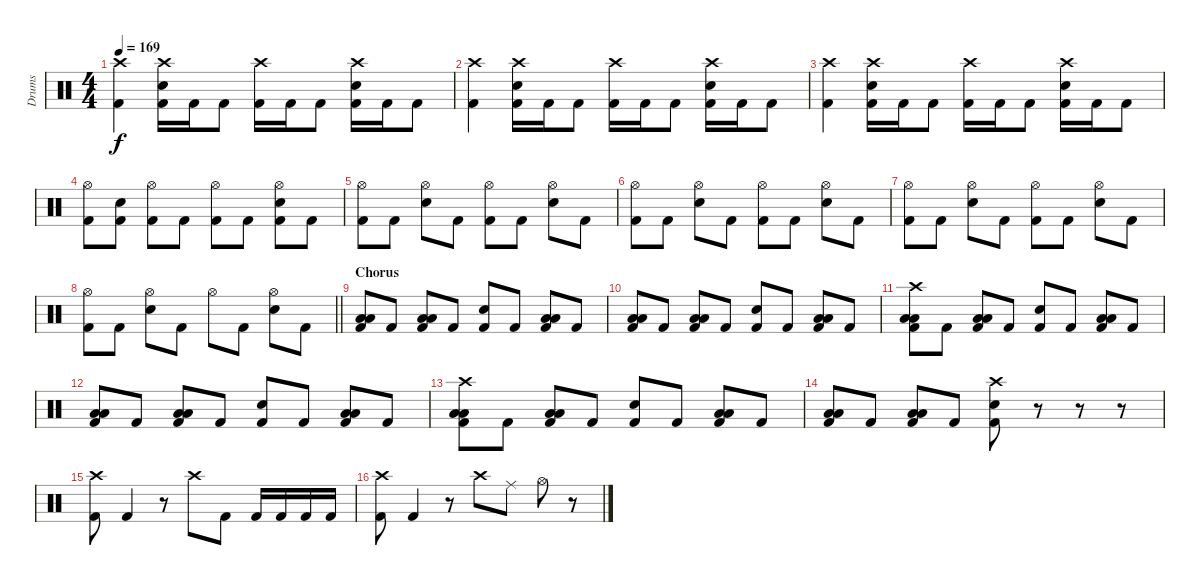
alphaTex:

\track ("Drums" "Drums") {instrument percussion}
\staff {score}
\articulation defaults
\ts (4 4)
\tempo 169
\clef neutral
\ks c
("Crash high (hit)" "Kick (hit) 2").4{dy f} ("Crash high (hit)" "Electric Snare (hit)" "Kick (hit) 2").16 "Kick (hit) 2".16 "Kick (hit) 2".8 ("Crash high (hit)" "Kick (hit) 2").16 "Kick (hit) 2".16 "Kick (hit) 2".8 ("Crash high (hit)" "Electric Snare (hit)" "Kick (hit) 2").16 "Kick (hit) 2".16 "Kick (hit) 2".8 |
("Crash high (hit)" "Kick (hit) 2").4 ("Crash high (hit)" "Electric Snare (hit)" "Kick (hit) 2").16 "Kick (hit) 2".16 "Kick (hit) 2".8 ("Crash high (hit)" "Kick (hit) 2").16 "Kick (hit) 2".16 "Kick (hit) 2".8 ("Crash high (hit)" "Electric Snare (hit)" "Kick (hit) 2").16 "Kick (hit) 2".16 "Kick (hit) 2".8 |
("Crash high (hit)" "Kick (hit) 2").4 ("Crash high (hit)" "Electric Snare (hit)" "Kick (hit) 2").16 "Kick (hit) 2".16 "Kick (hit) 2".8 ("Crash high (hit)" "Kick (hit) 2").16 "Kick (hit) 2".16 "Kick (hit) 2".8 ("Crash high (hit)" "Electric Snare (hit)" "Kick (hit) 2").16 "Kick (hit) 2".16 "Kick (hit) 2".8 |
("Hi-Hat (open)" "Kick (hit) 2").8 ("Electric Snare (hit)" "Kick (hit) 2").8 ("Hi-Hat (open)" "Kick (hit) 2").8 "Kick (hit) 2".8 ("Hi-Hat (open)" "Kick (hit) 2").8 "Kick (hit) 2".8 ("Hi-Hat (open)" "Electric Snare (hit)" "Kick (hit) 2").8 "Kick (hit) 2".8 |
("Hi-Hat (open)" "Kick (hit) 2").8 "Kick (hit) 2".8 ("Hi-Hat (open)" "Electric Snare (hit)").8 "Kick (hit) 2".8 ("Hi-Hat (open)" "Kick (hit) 2").8 "Kick (hit) 2".8 ("Hi-Hat (open)" "Electric Snare (hit)").8 "Kick (hit) 2".8 |
("Hi-Hat (open)" "Kick (hit) 2").8 "Kick (hit) 2".8 ("Hi-Hat (open)" "Electric Snare (hit)").8 "Kick (hit) 2".8 ("Hi-Hat (open)" "Kick (hit) 2").8 "Kick (hit) 2".8 ("Hi-Hat (open)" "Electric Snare (hit)").8 "Kick (hit) 2".8 |
("Hi-Hat (open)" "Kick (hit) 2").8 "Kick (hit) 2".8 ("Hi-Hat (open)" "Electric Snare (hit)").8 "Kick (hit) 2".8 ("Hi-Hat (open)" "Kick (hit) 2").8 "Kick (hit) 2".8 ("Hi-Hat (open)" "Electric Snare (hit)").8 "Kick (hit) 2".8 |
\barLineRight lightlight
("Hi-Hat (open)" "Kick (hit) 2").8 "Kick (hit) 2".8 ("Hi-Hat (open)" "Electric Snare (hit)").8 "Kick (hit) 2".8 "Hi-Hat (open)".8 "Kick (hit) 2".8 ("Hi-Hat (open)" "Electric Snare (hit)").8 "Kick (hit) 2".8 |
\section ("" "Chorus")
("Low Tom (hit)" "Low Tom (hit)" "Kick (hit) 2").8 "Kick (hit) 2".8 ("Low Tom (hit)" "Low Tom (hit)" "Kick (hit) 2").8 "Kick (hit) 2".8 ("Electric Snare (hit)" "Kick (hit) 2").8 "Kick (hit) 2".8 ("Low Tom (hit)" "Low Tom (hit)" "Kick (hit) 2").8 "Kick (hit) 2".8 |
("Low Tom (hit)" "Low Tom (hit)" "Kick (hit) 2").8 "Kick (hit) 2".8 ("Low Tom (hit)" "Low Tom (hit)" "Kick (hit) 2").8 "Kick (hit) 2".8 ("Electric Snare (hit)" "Kick (hit) 2").8 "Kick (hit) 2".8 ("Low Tom (hit)" "Low Tom (hit)" "Kick (hit) 2").8 "Kick (hit) 2".8 |
("Crash high (hit)" "Low Tom (hit)" "Low Tom (hit)" "Kick (hit) 2").8 "Kick (hit) 2".8 ("Low Tom (hit)" "Low Tom (hit)" "Kick (hit) 2").8 "Kick (hit) 2".8 ("Electric Snare (hit)" "Kick (hit) 2").8 "Kick (hit) 2".8 ("Low Tom (hit)" "Low Tom (hit)" "Kick (hit) 2").8 "Kick (hit) 2".8 |
("Low Tom (hit)" "Low Tom (hit)" "Kick (hit) 2").8 "Kick (hit) 2".8 ("Low Tom (hit)" "Low Tom (hit)" "Kick (hit) 2").8 "Kick (hit) 2".8 ("Electric Snare (hit)" "Kick (hit) 2").8 "Kick (hit) 2".8 ("Low Tom (hit)" "Low Tom (hit)" "Kick (hit) 2").8 "Kick (hit) 2".8 |
("Crash high (hit)" "Low Tom (hit)" "Low Tom (hit)" "Kick (hit) 2").8 "Kick (hit) 2".8 ("Low Tom (hit)" "Low Tom (hit)" "Kick (hit) 2").8 "Kick (hit) 2".8 ("Electric Snare (hit)" "Kick (hit) 2").8 "Kick (hit) 2".8 ("Low Tom (hit)" "Low Tom (hit)" "Kick (hit) 2").8 "Kick (hit) 2".8 |
("Low Tom (hit)" "Low Tom (hit)" "Kick (hit) 2").8 "Kick (hit) 2".8 ("Low Tom (hit)" "Low Tom (hit)" "Kick (hit) 2").8 "Kick (hit) 2".8 ("Crash high (hit)" "Electric Snare (hit)" "Kick (hit) 2").8 r.8 r.8 r.8 |
("Crash high (hit)" "Kick (hit) 2").8 "Kick (hit) 2".4 r.8 "Crash high (hit)".8 "Kick (hit) 2".8 "Kick (hit) 2".16 "Kick (hit) 2".16 "Kick (hit) 2".16 "Kick (hit) 2".16 |
("Crash high (hit)" "Kick (hit) 2").8 "Kick (hit) 2".4 r.8 "Crash high (hit)".8 "Ride (middle)".8 "Hi-Hat (open)".8 r.8
